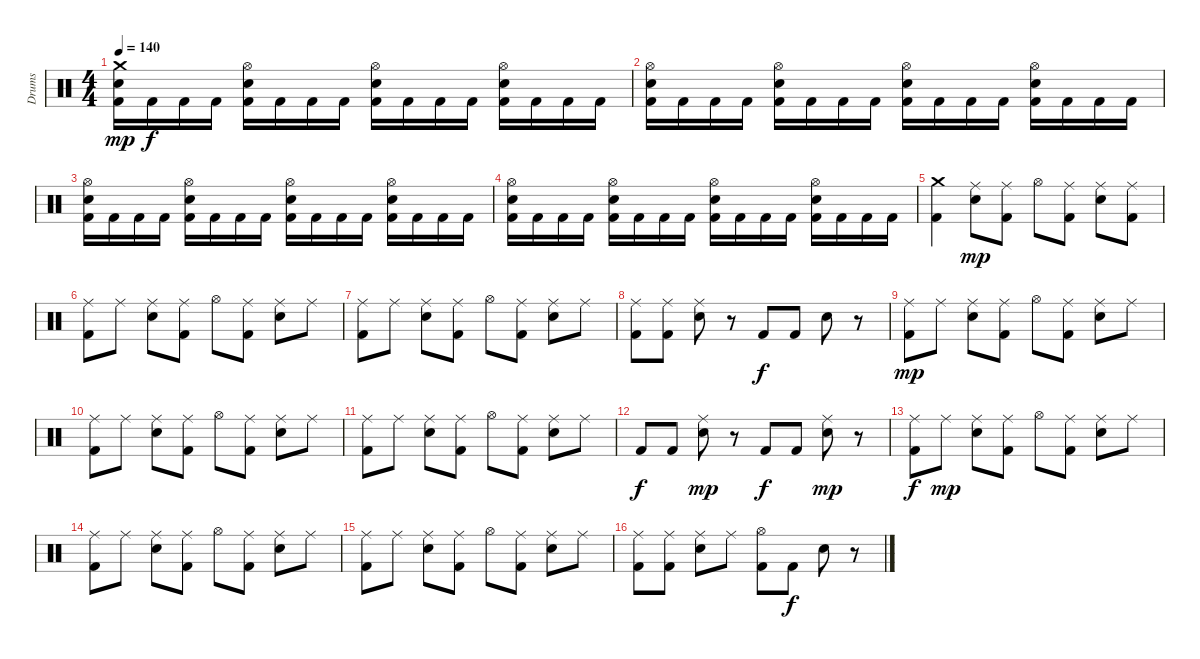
\track ("Drums" "Drums") {instrument percussion}
\staff {score}
\articulation defaults
\ts (4 4)
\tempo 140
\clef neutral
\ks c
("Crash medium (hit)" "Electric Snare (hit)" "Kick (hit) 2").16{dy mp} "Kick (hit) 2".16{dy f} "Kick (hit) 2".16 "Kick (hit) 2".16 ("Hi-Hat (open)" "Electric Snare (hit)" "Kick (hit) 2").16 "Kick (hit) 2".16 "Kick (hit) 2".16 "Kick (hit) 2".16 ("Hi-Hat (open)" "Electric Snare (hit)" "Kick (hit) 2").16 "Kick (hit) 2".16 "Kick (hit) 2".16 "Kick (hit) 2".16 ("Hi-Hat (open)" "Electric Snare (hit)" "Kick (hit) 2").16 "Kick (hit) 2".16 "Kick (hit) 2".16 "Kick (hit) 2".16 |
("Hi-Hat (open)" "Electric Snare (hit)" "Kick (hit) 2").16 "Kick (hit) 2".16 "Kick (hit) 2".16 "Kick (hit) 2".16 ("Hi-Hat (open)" "Electric Snare (hit)" "Kick (hit) 2").16 "Kick (hit) 2".16 "Kick (hit) 2".16 "Kick (hit) 2".16 ("Hi-Hat (open)" "Electric Snare (hit)" "Kick (hit) 2").16 "Kick (hit) 2".16 "Kick (hit) 2".16 "Kick (hit) 2".16 ("Hi-Hat (open)" "Electric Snare (hit)" "Kick (hit) 2").16 "Kick (hit) 2".16 "Kick (hit) 2".16 "Kick (hit) 2".16 |
("Hi-Hat (open)" "Electric Snare (hit)" "Kick (hit) 2").16 "Kick (hit) 2".16 "Kick (hit) 2".16 "Kick (hit) 2".16 ("Hi-Hat (open)" "Electric Snare (hit)" "Kick (hit) 2").16 "Kick (hit) 2".16 "Kick (hit) 2".16 "Kick (hit) 2".16 ("Hi-Hat (open)" "Electric Snare (hit)" "Kick (hit) 2").16 "Kick (hit) 2".16 "Kick (hit) 2".16 "Kick (hit) 2".16 ("Hi-Hat (open)" "Electric Snare (hit)" "Kick (hit) 2").16 "Kick (hit) 2".16 "Kick (hit) 2".16 "Kick (hit) 2".16 |
("Hi-Hat (open)" "Electric Snare (hit)" "Kick (hit) 2").16 "Kick (hit) 2".16 "Kick (hit) 2".16 "Kick (hit) 2".16 ("Hi-Hat (open)" "Electric Snare (hit)" "Kick (hit) 2").16 "Kick (hit) 2".16 "Kick (hit) 2".16 "Kick (hit) 2".16 ("Hi-Hat (open)" "Electric Snare (hit)" "Kick (hit) 2").16 "Kick (hit) 2".16 "Kick (hit) 2".16 "Kick (hit) 2".16 ("Hi-Hat (open)" "Electric Snare (hit)" "Kick (hit) 2").16 "Kick (hit) 2".16 "Kick (hit) 2".16 "Kick (hit) 2".16 |
("Crash medium (hit)" "Kick (hit) 2").4 ("Ride (middle)" "Electric Snare (hit)").8{dy mp} ("Ride (middle)" "Kick (hit) 2").8 "Hi-Hat (open)".8 ("Ride (middle)" "Kick (hit) 2").8 ("Ride (middle)" "Electric Snare (hit)").8 ("Ride (middle)" "Kick (hit) 2").8 |
("Ride (middle)" "Kick (hit) 2").8 "Ride (middle)".8 ("Ride (middle)" "Electric Snare (hit)").8 ("Ride (middle)" "Kick (hit) 2").8 "Hi-Hat (open)".8 ("Ride (middle)" "Kick (hit) 2").8 ("Ride (middle)" "Electric Snare (hit)").8 "Ride (middle)".8 |
("Ride (middle)" "Kick (hit) 2").8 "Ride (middle)".8 ("Ride (middle)" "Electric Snare (hit)").8 ("Ride (middle)" "Kick (hit) 2").8 "Hi-Hat (open)".8 ("Ride (middle)" "Kick (hit) 2").8 ("Ride (middle)" "Electric Snare (hit)").8 "Ride (middle)".8 |
("Ride (middle)" "Kick (hit) 2").8 ("Ride (middle)" "Kick (hit) 2").8 ("Ride (middle)" "Electric Snare (hit)").8 r.8 "Kick (hit) 2".8{dy f} "Kick (hit) 2".8 "Electric Snare (hit)".8 r.8 |
("Ride (middle)" "Kick (hit) 2").8{dy mp} "Ride (middle)".8 ("Ride (middle)" "Electric Snare (hit)").8 ("Ride (middle)" "Kick (hit) 2").8 "Hi-Hat (open)".8 ("Ride (middle)" "Kick (hit) 2").8 ("Ride (middle)" "Electric Snare (hit)").8 "Ride (middle)".8 |
("Ride (middle)" "Kick (hit) 2").8 "Ride (middle)".8 ("Ride (middle)" "Electric Snare (hit)").8 ("Ride (middle)" "Kick (hit) 2").8 "Hi-Hat (open)".8 ("Ride (middle)" "Kick (hit) 2").8 ("Ride (middle)" "Electric Snare (hit)").8 "Ride (middle)".8 |
("Ride (middle)" "Kick (hit) 2").8 "Ride (middle)".8 ("Ride (middle)" "Electric Snare (hit)").8 ("Ride (middle)" "Kick (hit) 2").8 "Hi-Hat (open)".8 ("Ride (middle)" "Kick (hit) 2").8 ("Ride (middle)" "Electric Snare (hit)").8 "Ride (middle)".8 |
"Kick (hit) 2".8{dy f} "Kick (hit) 2".8 ("Ride (middle)" "Electric Snare (hit)").8{dy mp} r.8 "Kick (hit) 2".8{dy f} "Kick (hit) 2".8 ("Ride (middle)" "Electric Snare (hit)").8{dy mp} r.8 |
("Ride (middle)" "Kick (hit) 2").8{dy f} "Ride (middle)".8{dy mp} ("Ride (middle)" "Electric Snare (hit)").8 ("Ride (middle)" "Kick (hit) 2").8 "Hi-Hat (open)".8 ("Ride (middle)" "Kick (hit) 2").8 ("Ride (middle)" "Electric Snare (hit)").8 "Ride (middle)".8 |
("Ride (middle)" "Kick (hit) 2").8 "Ride (middle)".8 ("Ride (middle)" "Electric Snare (hit)").8 ("Ride (middle)" "Kick (hit) 2").8 "Hi-Hat (open)".8 ("Ride (middle)" "Kick (hit) 2").8 ("Ride (middle)" "Electric Snare (hit)").8 "Ride (middle)".8 |
("Ride (middle)" "Kick (hit) 2").8 "Ride (middle)".8 ("Ride (middle)" "Electric Snare (hit)").8 ("Ride (middle)" "Kick (hit) 2").8 "Hi-Hat (open)".8 ("Ride (middle)" "Kick (hit) 2").8 ("Ride (middle)" "Electric Snare (hit)").8 "Ride (middle)".8 |
("Ride (middle)" "Kick (hit) 2").8 ("Ride (middle)" "Kick (hit) 2").8 ("Ride (middle)" "Electric Snare (hit)").8 "Ride (middle)".8 ("Hi-Hat (open)" "Kick (hit) 2").8 "Kick (hit) 2".8{dy f} "Electric Snare (hit)".8 r.8
